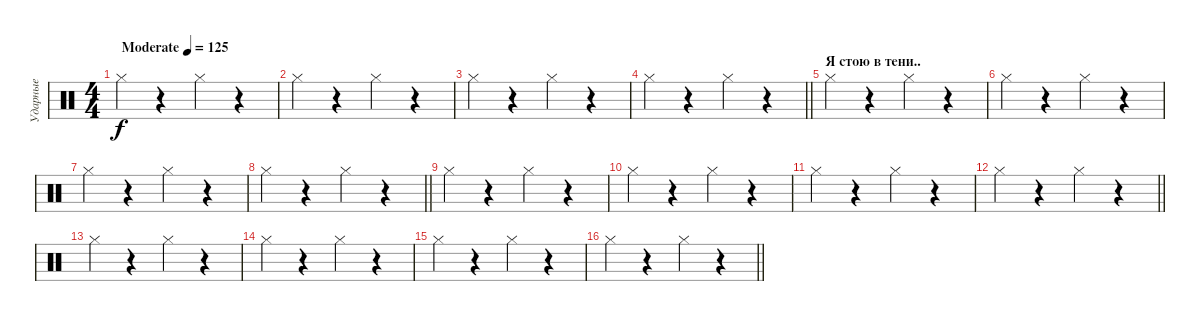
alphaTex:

\track ("Ударные" "Ударные") {instrument percussion}
\staff {score}
\articulation defaults
\ts (4 4)
\tempo (125 "Moderate")
\clef neutral
\ks c "Hi-Hat (closed)".4{dy f}
r.4 "Hi-Hat (closed)".4 r.4 |
"Hi-Hat (closed)".4 r.4 "Hi-Hat (closed)".4 r.4 |
"Hi-Hat (closed)".4 r.4 "Hi-Hat (closed)".4 r.4 |
\barLineRight lightlight "Hi-Hat (closed)".4
r.4 "Hi-Hat (closed)".4 r.4 |
\section ("" "Я стою в тени..")
"Hi-Hat (closed)".4 r.4 "Hi-Hat (closed)".4 r.4 |
"Hi-Hat (closed)".4 r.4 "Hi-Hat (closed)".4 r.4 |
"Hi-Hat (closed)".4 r.4 "Hi-Hat (closed)".4 r.4 |
\barLineRight lightlight "Hi-Hat (closed)".4
r.4 "Hi-Hat (closed)".4 r.4 |
"Hi-Hat (closed)".4 r.4 "Hi-Hat (closed)".4 r.4 |
"Hi-Hat (closed)".4 r.4 "Hi-Hat (closed)".4 r.4 |
"Hi-Hat (closed)".4 r.4 "Hi-Hat (closed)".4 r.4 |
\barLineRight lightlight "Hi-Hat (closed)".4
r.4 "Hi-Hat (closed)".4 r.4 |
"Hi-Hat (closed)".4 r.4 "Hi-Hat (closed)".4 r.4 |
"Hi-Hat (closed)".4 r.4 "Hi-Hat (closed)".4 r.4 |
"Hi-Hat (closed)".4 r.4 "Hi-Hat (closed)".4 r.4 |
\barLineRight lightlight "Hi-Hat (closed)".4
r.4 "Hi-Hat (closed)".4 r.4
